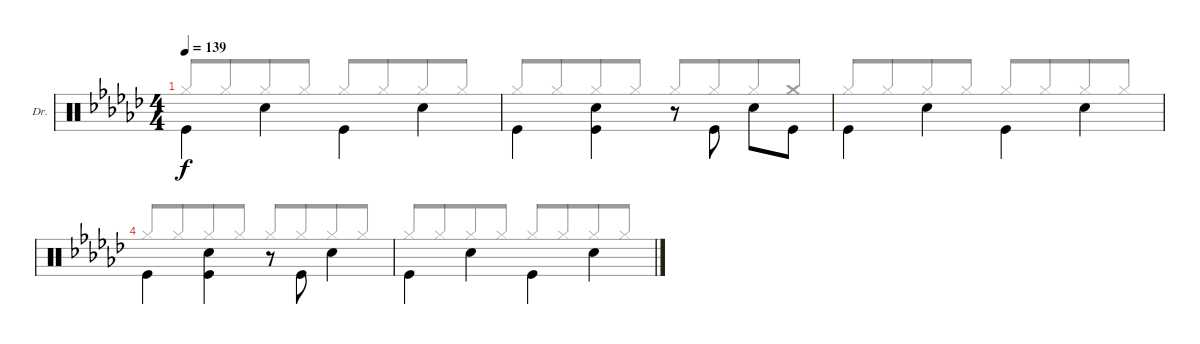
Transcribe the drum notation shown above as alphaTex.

\bracketExtendMode groupsimilarinstruments
\firstSystemTrackNameOrientation horizontal
\otherSystemsTrackNameOrientation horizontal
\defaultBarNumberDisplay FirstOfSystem
\track ("Drums" "Dr.") {instrument percussion}
\staff {score}
\articulation defaults
\voice
\ts (4 4)
\tempo 139
\clef neutral
\ks gb "Kick (hit)".4{dy f beam invert} "Snare (hit) 2".4{beam invert} "Kick (hit)".4{beam invert} "Snare (hit) 2".4{beam invert}
|
"Kick (hit)".4{beam invert} ("Kick (hit)" "Snare (hit) 2").4{beam invert} r.8 "Kick (hit)".8{beam invert} "Snare (hit) 2".8{beam invert} "Kick (hit)".8 |
"Kick (hit)".4{beam invert} "Snare (hit) 2".4{beam invert} "Kick (hit)".4{beam invert} "Snare (hit) 2".4{beam invert} |
"Kick (hit)".4{beam invert} ("Kick (hit)" "Snare (hit) 2").4{beam invert} r.8 "Kick (hit)".8{beam invert} "Snare (hit) 2".4{beam invert} |
"Kick (hit)".4{beam invert} "Snare (hit) 2".4{beam invert} "Kick (hit)".4{beam invert} "Snare (hit) 2".4{beam invert}
\voice
\clef neutral
\ottava regular
\simile none
\ks gb "Hi-Hat (closed)".8{dy f beam invert} "Hi-Hat (closed)".8{beam merge} "Hi-Hat (closed)".8 "Hi-Hat (closed)".8 "Hi-Hat (closed)".8{beam invert} "Hi-Hat (closed)".8{beam merge} "Hi-Hat (closed)".8 "Hi-Hat (closed)".8
|
"Hi-Hat (closed)".8{beam invert beam merge} "Hi-Hat (closed)".8{beam merge} "Hi-Hat (closed)".8 "Hi-Hat (closed)".8 "Hi-Hat (closed)".8{beam invert} "Hi-Hat (closed)".8{beam merge} "Hi-Hat (closed)".8{beam merge} "Crash medium (hit)".8 |
"Hi-Hat (closed)".8{beam invert} "Hi-Hat (closed)".8{beam merge} "Hi-Hat (closed)".8 "Hi-Hat (closed)".8 "Hi-Hat (closed)".8{beam invert} "Hi-Hat (closed)".8{beam merge} "Hi-Hat (closed)".8 "Hi-Hat (closed)".8 |
"Hi-Hat (closed)".8{beam invert} "Hi-Hat (closed)".8{beam merge} "Hi-Hat (closed)".8 "Hi-Hat (closed)".8 "Hi-Hat (closed)".8{beam invert beam merge} "Hi-Hat (closed)".8{beam merge} "Hi-Hat (closed)".8{beam merge} "Hi-Hat (closed)".8 |
"Hi-Hat (closed)".8{beam invert} "Hi-Hat (closed)".8{beam merge} "Hi-Hat (closed)".8 "Hi-Hat (closed)".8 "Hi-Hat (closed)".8{beam invert} "Hi-Hat (closed)".8{beam merge} "Hi-Hat (closed)".8 "Hi-Hat (closed)".8
